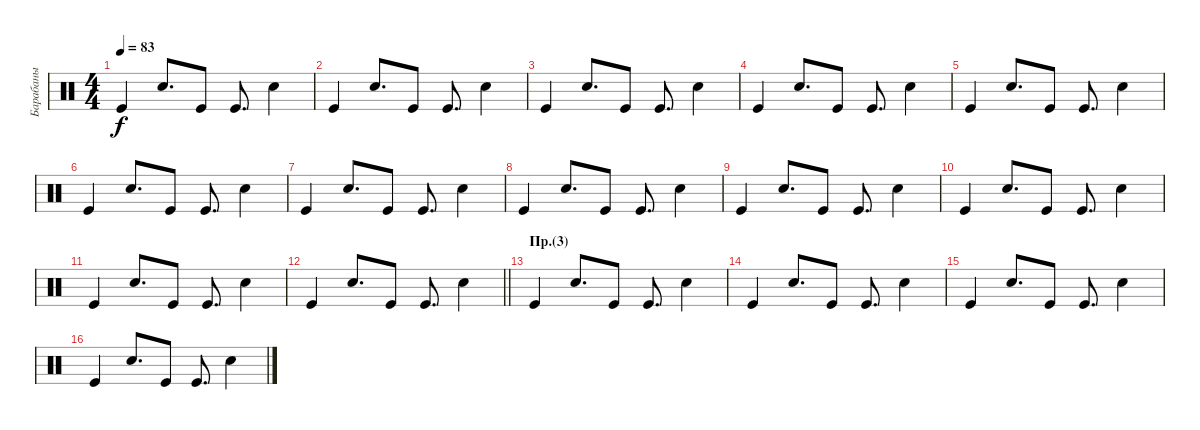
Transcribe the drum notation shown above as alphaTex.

\track ("Барабаны" "Барабаны") {instrument percussion}
\staff {score}
\articulation defaults
\ts (4 4)
\tempo 83
\clef neutral
\ks c "Kick (hit)".4{dy f} "Snare (hit) 2".8{d} "Kick (hit)".8 "Kick (hit)".8{d} "Snare (hit) 2".4
|
"Kick (hit)".4 "Snare (hit) 2".8{d} "Kick (hit)".8 "Kick (hit)".8{d} "Snare (hit) 2".4 |
"Kick (hit)".4 "Snare (hit) 2".8{d} "Kick (hit)".8 "Kick (hit)".8{d} "Snare (hit) 2".4 |
"Kick (hit)".4 "Snare (hit) 2".8{d} "Kick (hit)".8 "Kick (hit)".8{d} "Snare (hit) 2".4 |
"Kick (hit)".4 "Snare (hit) 2".8{d} "Kick (hit)".8 "Kick (hit)".8{d} "Snare (hit) 2".4 |
"Kick (hit)".4 "Snare (hit) 2".8{d} "Kick (hit)".8 "Kick (hit)".8{d} "Snare (hit) 2".4 |
"Kick (hit)".4 "Snare (hit) 2".8{d} "Kick (hit)".8 "Kick (hit)".8{d} "Snare (hit) 2".4 |
"Kick (hit)".4 "Snare (hit) 2".8{d} "Kick (hit)".8 "Kick (hit)".8{d} "Snare (hit) 2".4 |
"Kick (hit)".4 "Snare (hit) 2".8{d} "Kick (hit)".8 "Kick (hit)".8{d} "Snare (hit) 2".4 |
"Kick (hit)".4 "Snare (hit) 2".8{d} "Kick (hit)".8 "Kick (hit)".8{d} "Snare (hit) 2".4 |
"Kick (hit)".4 "Snare (hit) 2".8{d} "Kick (hit)".8 "Kick (hit)".8{d} "Snare (hit) 2".4 |
\barLineRight lightlight "Kick (hit)".4 "Snare (hit) 2".8{d} "Kick (hit)".8 "Kick (hit)".8{d} "Snare (hit) 2".4
|
\section ("" "Пр.(3)")
"Kick (hit)".4 "Snare (hit) 2".8{d} "Kick (hit)".8 "Kick (hit)".8{d} "Snare (hit) 2".4 |
"Kick (hit)".4 "Snare (hit) 2".8{d} "Kick (hit)".8 "Kick (hit)".8{d} "Snare (hit) 2".4 |
"Kick (hit)".4 "Snare (hit) 2".8{d} "Kick (hit)".8 "Kick (hit)".8{d} "Snare (hit) 2".4 |
"Kick (hit)".4 "Snare (hit) 2".8{d} "Kick (hit)".8 "Kick (hit)".8{d} "Snare (hit) 2".4
